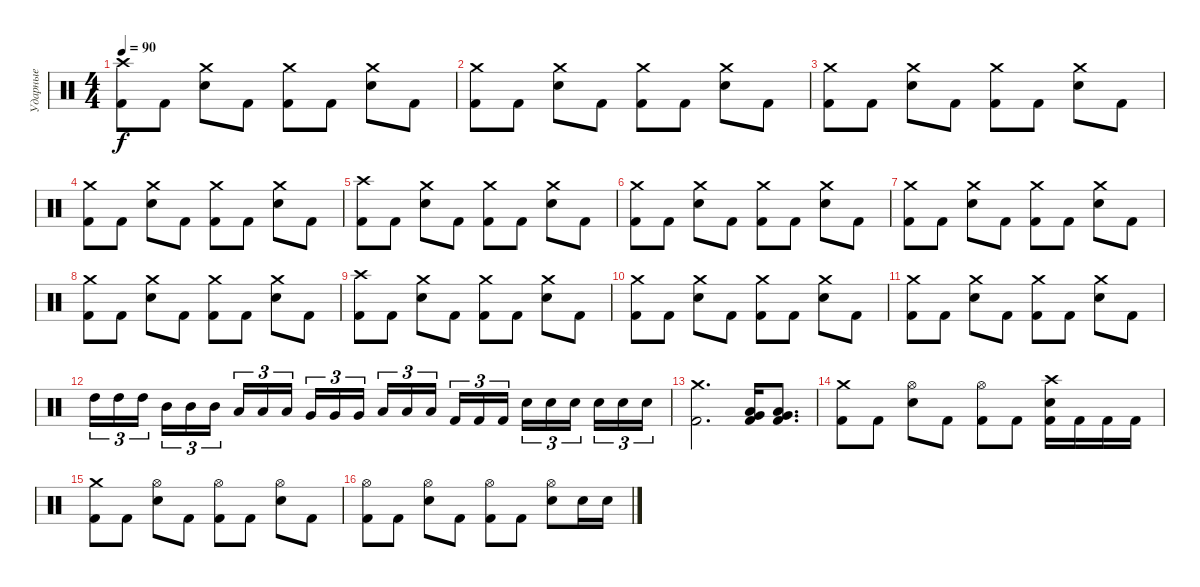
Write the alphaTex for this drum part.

\track ("Ударные" "Ударные") {instrument percussion}
\staff {score}
\articulation defaults
\ts (4 4)
\tempo 90
\clef neutral
\ks c
("Crash high (hit)" "Kick (hit) 2").8{dy f} "Kick (hit) 2".8 ("Crash medium (hit)" "Electric Snare (hit)").8 "Kick (hit) 2".8 ("Crash medium (hit)" "Kick (hit) 2").8 "Kick (hit) 2".8 ("Crash medium (hit)" "Electric Snare (hit)").8 "Kick (hit) 2".8 |
("Crash medium (hit)" "Kick (hit) 2").8 "Kick (hit) 2".8 ("Crash medium (hit)" "Electric Snare (hit)").8 "Kick (hit) 2".8 ("Crash medium (hit)" "Kick (hit) 2").8 "Kick (hit) 2".8 ("Crash medium (hit)" "Electric Snare (hit)").8 "Kick (hit) 2".8 |
("Crash medium (hit)" "Kick (hit) 2").8 "Kick (hit) 2".8 ("Crash medium (hit)" "Electric Snare (hit)").8 "Kick (hit) 2".8 ("Crash medium (hit)" "Kick (hit) 2").8 "Kick (hit) 2".8 ("Crash medium (hit)" "Electric Snare (hit)").8 "Kick (hit) 2".8 |
("Crash medium (hit)" "Kick (hit) 2").8 "Kick (hit) 2".8 ("Crash medium (hit)" "Electric Snare (hit)").8 "Kick (hit) 2".8 ("Crash medium (hit)" "Kick (hit) 2").8 "Kick (hit) 2".8 ("Crash medium (hit)" "Electric Snare (hit)").8 "Kick (hit) 2".8 |
("Crash high (hit)" "Kick (hit) 2").8 "Kick (hit) 2".8 ("Crash medium (hit)" "Electric Snare (hit)").8 "Kick (hit) 2".8 ("Crash medium (hit)" "Kick (hit) 2").8 "Kick (hit) 2".8 ("Crash medium (hit)" "Electric Snare (hit)").8 "Kick (hit) 2".8 |
("Crash medium (hit)" "Kick (hit) 2").8 "Kick (hit) 2".8 ("Crash medium (hit)" "Electric Snare (hit)").8 "Kick (hit) 2".8 ("Crash medium (hit)" "Kick (hit) 2").8 "Kick (hit) 2".8 ("Crash medium (hit)" "Electric Snare (hit)").8 "Kick (hit) 2".8 |
("Crash medium (hit)" "Kick (hit) 2").8 "Kick (hit) 2".8 ("Crash medium (hit)" "Electric Snare (hit)").8 "Kick (hit) 2".8 ("Crash medium (hit)" "Kick (hit) 2").8 "Kick (hit) 2".8 ("Crash medium (hit)" "Electric Snare (hit)").8 "Kick (hit) 2".8 |
("Crash medium (hit)" "Kick (hit) 2").8 "Kick (hit) 2".8 ("Crash medium (hit)" "Electric Snare (hit)").8 "Kick (hit) 2".8 ("Crash medium (hit)" "Kick (hit) 2").8 "Kick (hit) 2".8 ("Crash medium (hit)" "Electric Snare (hit)").8 "Kick (hit) 2".8 |
("Crash high (hit)" "Kick (hit) 2").8 "Kick (hit) 2".8 ("Crash medium (hit)" "Electric Snare (hit)").8 "Kick (hit) 2".8 ("Crash medium (hit)" "Kick (hit) 2").8 "Kick (hit) 2".8 ("Crash medium (hit)" "Electric Snare (hit)").8 "Kick (hit) 2".8 |
("Crash medium (hit)" "Kick (hit) 2").8 "Kick (hit) 2".8 ("Crash medium (hit)" "Electric Snare (hit)").8 "Kick (hit) 2".8 ("Crash medium (hit)" "Kick (hit) 2").8 "Kick (hit) 2".8 ("Crash medium (hit)" "Electric Snare (hit)").8 "Kick (hit) 2".8 |
("Crash medium (hit)" "Kick (hit) 2").8 "Kick (hit) 2".8 ("Crash medium (hit)" "Electric Snare (hit)").8 "Kick (hit) 2".8 ("Crash medium (hit)" "Kick (hit) 2").8 "Kick (hit) 2".8 ("Crash medium (hit)" "Electric Snare (hit)").8 "Kick (hit) 2".8 |
"High Tom (hit)".16{tu (3 2)} "High Tom (hit)".16{tu (3 2)} "High Tom (hit)".16{tu (3 2) beam splitsecondary} "Mid Tom (hit)".16{tu (3 2)} "Mid Tom (hit)".16{tu (3 2)} "Mid Tom (hit)".16{tu (3 2)} "Low Tom (hit)".16{tu (3 2)} "Low Tom (hit)".16{tu (3 2)} "Low Tom (hit)".16{tu (3 2) beam splitsecondary} "Very Low Tom (hit)".16{tu (3 2)} "Very Low Tom (hit)".16{tu (3 2)} "Very Low Tom (hit)".16{tu (3 2)} "Low Floor Tom (hit)".16{tu (3 2)} "Low Floor Tom (hit)".16{tu (3 2)} "Low Floor Tom (hit)".16{tu (3 2) beam splitsecondary} "Kick (hit) 2".16{tu (3 2)} "Kick (hit) 2".16{tu (3 2)} "Kick (hit) 2".16{tu (3 2)} "Electric Snare (hit)".16{tu (3 2)} "Electric Snare (hit)".16{tu (3 2)} "Electric Snare (hit)".16{tu (3 2) beam splitsecondary} "Electric Snare (hit)".16{tu (3 2)} "Electric Snare (hit)".16{tu (3 2)} "Electric Snare (hit)".16{tu (3 2)} |
("Crash medium (hit)" "Kick (hit) 2").2{d} ("Very Low Tom (hit)" "Low Floor Tom (hit)" "Kick (hit) 2").16 ("Very Low Tom (hit)" "Low Floor Tom (hit)" "Kick (hit) 2").8{d} |
("Crash medium (hit)" "Kick (hit) 2").8 "Kick (hit) 2".8 ("Hi-Hat (open)" "Electric Snare (hit)").8 "Kick (hit) 2".8 ("Hi-Hat (open)" "Kick (hit) 2").8 "Kick (hit) 2".8 ("Crash high (hit)" "Electric Snare (hit)" "Kick (hit) 2").16 "Kick (hit) 2".16 "Kick (hit) 2".16 "Kick (hit) 2".16 |
("Crash medium (hit)" "Kick (hit) 2").8 "Kick (hit) 2".8 ("Hi-Hat (open)" "Electric Snare (hit)").8 "Kick (hit) 2".8 ("Hi-Hat (open)" "Kick (hit) 2").8 "Kick (hit) 2".8 ("Hi-Hat (open)" "Electric Snare (hit)").8 "Kick (hit) 2".8 |
("Hi-Hat (open)" "Kick (hit) 2").8 "Kick (hit) 2".8 ("Hi-Hat (open)" "Electric Snare (hit)").8 "Kick (hit) 2".8 ("Hi-Hat (open)" "Kick (hit) 2").8 "Kick (hit) 2".8 ("Hi-Hat (open)" "Electric Snare (hit)").8 "Electric Snare (hit)".16 "Electric Snare (hit)".16
